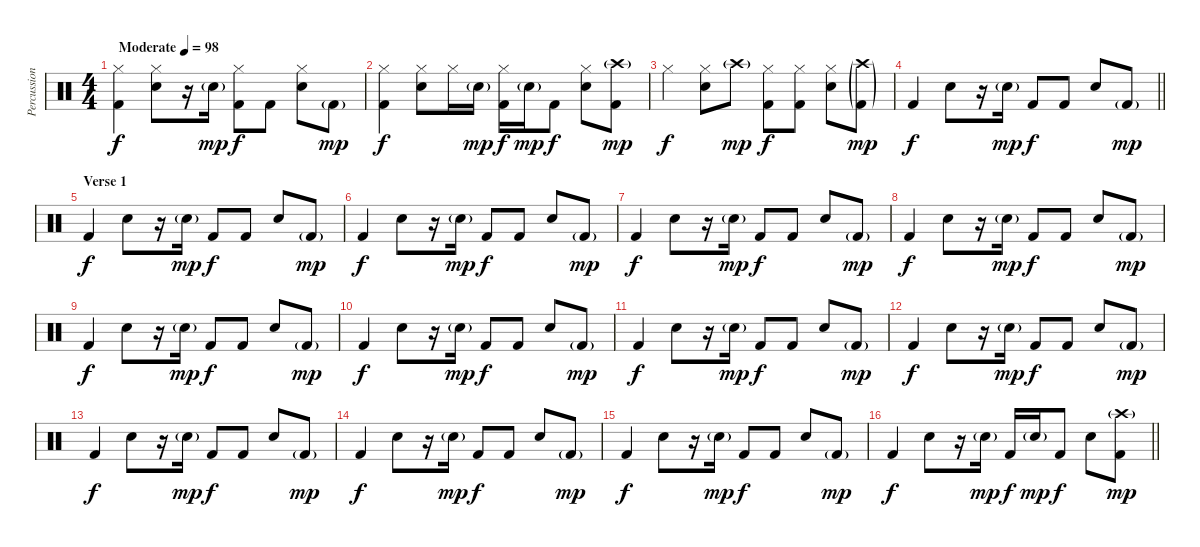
\track ("Percussion" "Percussion") {instrument percussion}
\staff {score}
\articulation defaults
\ts (4 4)
\tempo (98 "Moderate")
\clef neutral
\ks c
("Hi-Hat (closed)" "Kick (hit) 2").4{dy f} ("Hi-Hat (closed)" "Snare (hit) 2").8 r.16 "Snare (hit) 2"{g}.16{dy mp} ("Hi-Hat (closed)" "Kick (hit) 2").8{dy f} "Kick (hit) 2".8 ("Hi-Hat (closed)" "Snare (hit) 2").8 "Kick (hit) 2"{g}.8{dy mp} |
("Hi-Hat (closed)" "Kick (hit) 2").4{dy f} ("Hi-Hat (closed)" "Snare (hit) 2").8 "Hi-Hat (closed)".16 "Snare (hit) 2"{g}.16{dy mp} ("Hi-Hat (closed)" "Kick (hit) 2").16{dy f} "Snare (hit) 2"{g}.16{dy mp} "Kick (hit) 2".8{dy f} ("Hi-Hat (closed)" "Snare (hit) 2").8 ("Crash high (hit)"{g} "Kick (hit) 2").8{dy mp} |
"Hi-Hat (closed)".4{dy f} ("Hi-Hat (closed)" "Snare (hit) 2").8 "Crash high (hit)"{g}.8{dy mp} ("Hi-Hat (closed)" "Kick (hit) 2").8{dy f} ("Hi-Hat (closed)" "Kick (hit) 2").8 ("Hi-Hat (closed)" "Snare (hit) 2").8 ("Crash high (hit)"{g} "Kick (hit) 2"{g}).8{dy mp} |
\barLineRight lightlight "Kick (hit) 2".4{dy f} "Snare (hit) 2".8
r.16 "Snare (hit) 2"{g}.16{dy mp} "Kick (hit) 2".8{dy f} "Kick (hit) 2".8 "Snare (hit) 2".8 "Kick (hit) 2"{g}.8{dy mp} |
\section ("" "Verse 1")
"Kick (hit) 2".4{dy f} "Snare (hit) 2".8 r.16 "Snare (hit) 2"{g}.16{dy mp} "Kick (hit) 2".8{dy f} "Kick (hit) 2".8 "Snare (hit) 2".8 "Kick (hit) 2"{g}.8{dy mp} |
"Kick (hit) 2".4{dy f} "Snare (hit) 2".8 r.16 "Snare (hit) 2"{g}.16{dy mp} "Kick (hit) 2".8{dy f} "Kick (hit) 2".8 "Snare (hit) 2".8 "Kick (hit) 2"{g}.8{dy mp} |
"Kick (hit) 2".4{dy f} "Snare (hit) 2".8 r.16 "Snare (hit) 2"{g}.16{dy mp} "Kick (hit) 2".8{dy f} "Kick (hit) 2".8 "Snare (hit) 2".8 "Kick (hit) 2"{g}.8{dy mp} |
"Kick (hit) 2".4{dy f} "Snare (hit) 2".8 r.16 "Snare (hit) 2"{g}.16{dy mp} "Kick (hit) 2".8{dy f} "Kick (hit) 2".8 "Snare (hit) 2".8 "Kick (hit) 2"{g}.8{dy mp} |
"Kick (hit) 2".4{dy f} "Snare (hit) 2".8 r.16 "Snare (hit) 2"{g}.16{dy mp} "Kick (hit) 2".8{dy f} "Kick (hit) 2".8 "Snare (hit) 2".8 "Kick (hit) 2"{g}.8{dy mp} |
"Kick (hit) 2".4{dy f} "Snare (hit) 2".8 r.16 "Snare (hit) 2"{g}.16{dy mp} "Kick (hit) 2".8{dy f} "Kick (hit) 2".8 "Snare (hit) 2".8 "Kick (hit) 2"{g}.8{dy mp} |
"Kick (hit) 2".4{dy f} "Snare (hit) 2".8 r.16 "Snare (hit) 2"{g}.16{dy mp} "Kick (hit) 2".8{dy f} "Kick (hit) 2".8 "Snare (hit) 2".8 "Kick (hit) 2"{g}.8{dy mp} |
"Kick (hit) 2".4{dy f} "Snare (hit) 2".8 r.16 "Snare (hit) 2"{g}.16{dy mp} "Kick (hit) 2".8{dy f} "Kick (hit) 2".8 "Snare (hit) 2".8 "Kick (hit) 2"{g}.8{dy mp} |
"Kick (hit) 2".4{dy f} "Snare (hit) 2".8 r.16 "Snare (hit) 2"{g}.16{dy mp} "Kick (hit) 2".8{dy f} "Kick (hit) 2".8 "Snare (hit) 2".8 "Kick (hit) 2"{g}.8{dy mp} |
"Kick (hit) 2".4{dy f} "Snare (hit) 2".8 r.16 "Snare (hit) 2"{g}.16{dy mp} "Kick (hit) 2".8{dy f} "Kick (hit) 2".8 "Snare (hit) 2".8 "Kick (hit) 2"{g}.8{dy mp} |
"Kick (hit) 2".4{dy f} "Snare (hit) 2".8 r.16 "Snare (hit) 2"{g}.16{dy mp} "Kick (hit) 2".8{dy f} "Kick (hit) 2".8 "Snare (hit) 2".8 "Kick (hit) 2"{g}.8{dy mp} |
\barLineRight lightlight "Kick (hit) 2".4{dy f} "Snare (hit) 2".8
r.16 "Snare (hit) 2"{g}.16{dy mp} "Kick (hit) 2".16{dy f} "Snare (hit) 2"{g}.16{dy mp} "Kick (hit) 2".8{dy f} "Snare (hit) 2".8 ("Crash high (hit)"{g} "Kick (hit) 2").8{dy mp}
